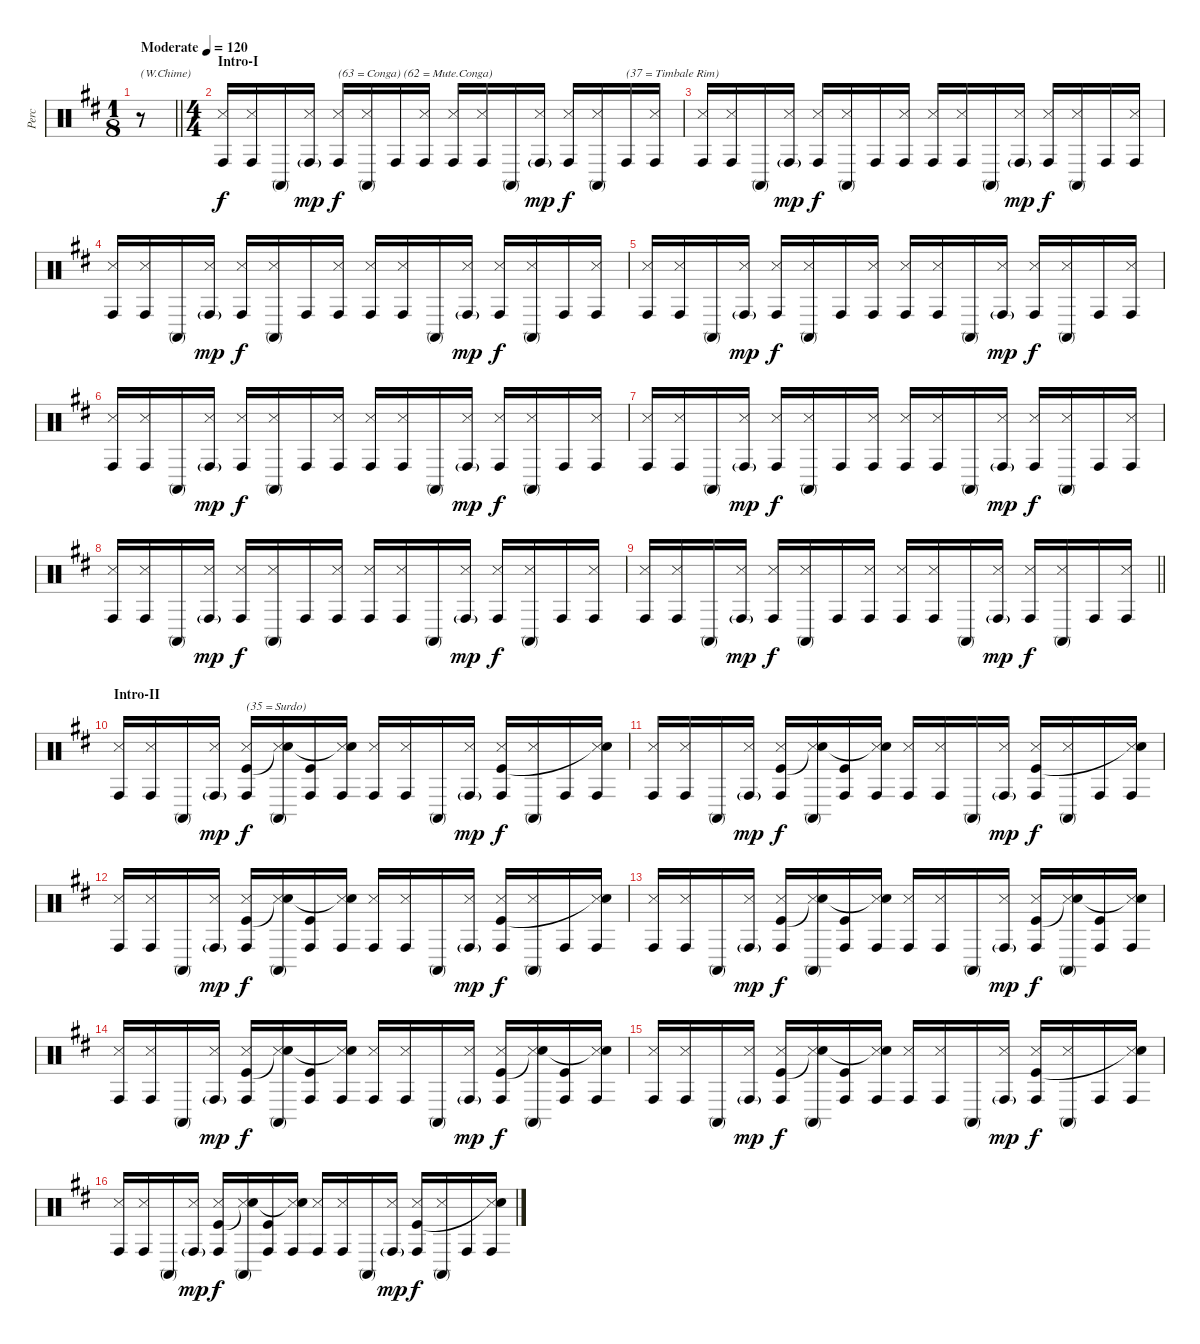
\track ("Perc" "Perc") {instrument percussion}
\staff {score}
\articulation defaults
\ts (1 8)
\tempo (120 "Moderate")
\clef neutral
\barLineRight lightlight
\ks d
r.8{txt "(W.Chime)" dy f} |
\ts (4 4)
\section ("" "Intro-I")
("Conga high (hit)" "Snare (side stick) 3").16 ("Conga high (hit)" "Snare (side stick) 3").16 "Conga high (mute)".16 ("Conga high (hit)"{g} "Snare (side stick) 3").16{dy mp} ("Conga high (hit)" "Snare (side stick) 3").16{txt "(63 = Conga) (62 = Mute.Conga)" dy f} ("Conga high (mute)" "Snare (side stick) 3").16 "Conga high (hit)".16 ("Conga high (hit)" "Snare (side stick) 3").16 ("Conga high (hit)" "Snare (side stick) 3").16 ("Conga high (hit)" "Snare (side stick) 3").16 "Conga high (mute)".16 ("Conga high (hit)"{g} "Snare (side stick) 3").16{dy mp} ("Conga high (hit)" "Snare (side stick) 3").16{dy f} ("Conga high (mute)" "Snare (side stick) 3").16 "Conga high (hit)".16{txt "(37 = Timbale Rim)"} ("Conga high (hit)" "Snare (side stick) 3").16 |
("Conga high (hit)" "Snare (side stick) 3").16 ("Conga high (hit)" "Snare (side stick) 3").16 "Conga high (mute)".16 ("Conga high (hit)"{g} "Snare (side stick) 3").16{dy mp} ("Conga high (hit)" "Snare (side stick) 3").16{dy f} ("Conga high (mute)" "Snare (side stick) 3").16 "Conga high (hit)".16 ("Conga high (hit)" "Snare (side stick) 3").16 ("Conga high (hit)" "Snare (side stick) 3").16 ("Conga high (hit)" "Snare (side stick) 3").16 "Conga high (mute)".16 ("Conga high (hit)"{g} "Snare (side stick) 3").16{dy mp} ("Conga high (hit)" "Snare (side stick) 3").16{dy f} ("Conga high (mute)" "Snare (side stick) 3").16 "Conga high (hit)".16 ("Conga high (hit)" "Snare (side stick) 3").16 |
("Conga high (hit)" "Snare (side stick) 3").16 ("Conga high (hit)" "Snare (side stick) 3").16 "Conga high (mute)".16 ("Conga high (hit)"{g} "Snare (side stick) 3").16{dy mp} ("Conga high (hit)" "Snare (side stick) 3").16{dy f} ("Conga high (mute)" "Snare (side stick) 3").16 "Conga high (hit)".16 ("Conga high (hit)" "Snare (side stick) 3").16 ("Conga high (hit)" "Snare (side stick) 3").16 ("Conga high (hit)" "Snare (side stick) 3").16 "Conga high (mute)".16 ("Conga high (hit)"{g} "Snare (side stick) 3").16{dy mp} ("Conga high (hit)" "Snare (side stick) 3").16{dy f} ("Conga high (mute)" "Snare (side stick) 3").16 "Conga high (hit)".16 ("Conga high (hit)" "Snare (side stick) 3").16 |
("Conga high (hit)" "Snare (side stick) 3").16 ("Conga high (hit)" "Snare (side stick) 3").16 "Conga high (mute)".16 ("Conga high (hit)"{g} "Snare (side stick) 3").16{dy mp} ("Conga high (hit)" "Snare (side stick) 3").16{dy f} ("Conga high (mute)" "Snare (side stick) 3").16 "Conga high (hit)".16 ("Conga high (hit)" "Snare (side stick) 3").16 ("Conga high (hit)" "Snare (side stick) 3").16 ("Conga high (hit)" "Snare (side stick) 3").16 "Conga high (mute)".16 ("Conga high (hit)"{g} "Snare (side stick) 3").16{dy mp} ("Conga high (hit)" "Snare (side stick) 3").16{dy f} ("Conga high (mute)" "Snare (side stick) 3").16 "Conga high (hit)".16 ("Conga high (hit)" "Snare (side stick) 3").16 |
("Conga high (hit)" "Snare (side stick) 3").16 ("Conga high (hit)" "Snare (side stick) 3").16 "Conga high (mute)".16 ("Conga high (hit)"{g} "Snare (side stick) 3").16{dy mp} ("Conga high (hit)" "Snare (side stick) 3").16{dy f} ("Conga high (mute)" "Snare (side stick) 3").16 "Conga high (hit)".16 ("Conga high (hit)" "Snare (side stick) 3").16 ("Conga high (hit)" "Snare (side stick) 3").16 ("Conga high (hit)" "Snare (side stick) 3").16 "Conga high (mute)".16 ("Conga high (hit)"{g} "Snare (side stick) 3").16{dy mp} ("Conga high (hit)" "Snare (side stick) 3").16{dy f} ("Conga high (mute)" "Snare (side stick) 3").16 "Conga high (hit)".16 ("Conga high (hit)" "Snare (side stick) 3").16 |
("Conga high (hit)" "Snare (side stick) 3").16 ("Conga high (hit)" "Snare (side stick) 3").16 "Conga high (mute)".16 ("Conga high (hit)"{g} "Snare (side stick) 3").16{dy mp} ("Conga high (hit)" "Snare (side stick) 3").16{dy f} ("Conga high (mute)" "Snare (side stick) 3").16 "Conga high (hit)".16 ("Conga high (hit)" "Snare (side stick) 3").16 ("Conga high (hit)" "Snare (side stick) 3").16 ("Conga high (hit)" "Snare (side stick) 3").16 "Conga high (mute)".16 ("Conga high (hit)"{g} "Snare (side stick) 3").16{dy mp} ("Conga high (hit)" "Snare (side stick) 3").16{dy f} ("Conga high (mute)" "Snare (side stick) 3").16 "Conga high (hit)".16 ("Conga high (hit)" "Snare (side stick) 3").16 |
("Conga high (hit)" "Snare (side stick) 3").16 ("Conga high (hit)" "Snare (side stick) 3").16 "Conga high (mute)".16 ("Conga high (hit)"{g} "Snare (side stick) 3").16{dy mp} ("Conga high (hit)" "Snare (side stick) 3").16{dy f} ("Conga high (mute)" "Snare (side stick) 3").16 "Conga high (hit)".16 ("Conga high (hit)" "Snare (side stick) 3").16 ("Conga high (hit)" "Snare (side stick) 3").16 ("Conga high (hit)" "Snare (side stick) 3").16 "Conga high (mute)".16 ("Conga high (hit)"{g} "Snare (side stick) 3").16{dy mp} ("Conga high (hit)" "Snare (side stick) 3").16{dy f} ("Conga high (mute)" "Snare (side stick) 3").16 "Conga high (hit)".16 ("Conga high (hit)" "Snare (side stick) 3").16 |
\barLineRight lightlight
("Conga high (hit)" "Snare (side stick) 3").16 ("Conga high (hit)" "Snare (side stick) 3").16 "Conga high (mute)".16 ("Conga high (hit)"{g} "Snare (side stick) 3").16{dy mp} ("Conga high (hit)" "Snare (side stick) 3").16{dy f} ("Conga high (mute)" "Snare (side stick) 3").16 "Conga high (hit)".16 ("Conga high (hit)" "Snare (side stick) 3").16 ("Conga high (hit)" "Snare (side stick) 3").16 ("Conga high (hit)" "Snare (side stick) 3").16 "Conga high (mute)".16 ("Conga high (hit)"{g} "Snare (side stick) 3").16{dy mp} ("Conga high (hit)" "Snare (side stick) 3").16{dy f} ("Conga high (mute)" "Snare (side stick) 3").16 "Conga high (hit)".16 ("Conga high (hit)" "Snare (side stick) 3").16 |
\section ("" "Intro-II")
("Conga high (hit)" "Snare (side stick) 3").16 ("Conga high (hit)" "Snare (side stick) 3").16 "Conga high (mute)".16 ("Conga high (hit)"{g} "Snare (side stick) 3").16{dy mp} ("Conga high (hit)" "Snare (side stick) 3" "Kick (hit)").16{txt "(35 = Surdo)" dy f} ("Conga high (mute)" "Snare (side stick) 3" "Snare (hit)"{t}).16 ("Conga high (hit)" "Kick (hit)").16 ("Conga high (hit)" "Snare (side stick) 3" "Snare (hit)"{t}).16 ("Conga high (hit)" "Snare (side stick) 3").16 ("Conga high (hit)" "Snare (side stick) 3").16 "Conga high (mute)".16 ("Conga high (hit)"{g} "Snare (side stick) 3").16{dy mp} ("Conga high (hit)" "Snare (side stick) 3" "Kick (hit)").16{dy f} ("Conga high (mute)" "Snare (side stick) 3").16 "Conga high (hit)".16 ("Conga high (hit)" "Snare (side stick) 3" "Snare (hit)"{t}).16 |
("Conga high (hit)" "Snare (side stick) 3").16 ("Conga high (hit)" "Snare (side stick) 3").16 "Conga high (mute)".16 ("Conga high (hit)"{g} "Snare (side stick) 3").16{dy mp} ("Conga high (hit)" "Snare (side stick) 3" "Kick (hit)").16{dy f} ("Conga high (mute)" "Snare (side stick) 3" "Snare (hit)"{t}).16 ("Conga high (hit)" "Kick (hit)").16 ("Conga high (hit)" "Snare (side stick) 3" "Snare (hit)"{t}).16 ("Conga high (hit)" "Snare (side stick) 3").16 ("Conga high (hit)" "Snare (side stick) 3").16 "Conga high (mute)".16 ("Conga high (hit)"{g} "Snare (side stick) 3").16{dy mp} ("Conga high (hit)" "Snare (side stick) 3" "Kick (hit)").16{dy f} ("Conga high (mute)" "Snare (side stick) 3").16 "Conga high (hit)".16 ("Conga high (hit)" "Snare (side stick) 3" "Snare (hit)"{t}).16 |
("Conga high (hit)" "Snare (side stick) 3").16 ("Conga high (hit)" "Snare (side stick) 3").16 "Conga high (mute)".16 ("Conga high (hit)"{g} "Snare (side stick) 3").16{dy mp} ("Conga high (hit)" "Snare (side stick) 3" "Kick (hit)").16{dy f} ("Conga high (mute)" "Snare (side stick) 3" "Snare (hit)"{t}).16 ("Conga high (hit)" "Kick (hit)").16 ("Conga high (hit)" "Snare (side stick) 3" "Snare (hit)"{t}).16 ("Conga high (hit)" "Snare (side stick) 3").16 ("Conga high (hit)" "Snare (side stick) 3").16 "Conga high (mute)".16 ("Conga high (hit)"{g} "Snare (side stick) 3").16{dy mp} ("Conga high (hit)" "Snare (side stick) 3" "Kick (hit)").16{dy f} ("Conga high (mute)" "Snare (side stick) 3").16 "Conga high (hit)".16 ("Conga high (hit)" "Snare (side stick) 3" "Snare (hit)"{t}).16 |
("Conga high (hit)" "Snare (side stick) 3").16 ("Conga high (hit)" "Snare (side stick) 3").16 "Conga high (mute)".16 ("Conga high (hit)"{g} "Snare (side stick) 3").16{dy mp} ("Conga high (hit)" "Snare (side stick) 3" "Kick (hit)").16{dy f} ("Conga high (mute)" "Snare (side stick) 3" "Snare (hit)"{t}).16 ("Conga high (hit)" "Kick (hit)").16 ("Conga high (hit)" "Snare (side stick) 3" "Snare (hit)"{t}).16 ("Conga high (hit)" "Snare (side stick) 3").16 ("Conga high (hit)" "Snare (side stick) 3").16 "Conga high (mute)".16 ("Conga high (hit)"{g} "Snare (side stick) 3").16{dy mp} ("Conga high (hit)" "Snare (side stick) 3" "Kick (hit)").16{dy f} ("Conga high (mute)" "Snare (side stick) 3" "Snare (hit)"{t}).16 ("Conga high (hit)" "Kick (hit)").16 ("Conga high (hit)" "Snare (side stick) 3" "Snare (hit)"{t}).16 |
("Conga high (hit)" "Snare (side stick) 3").16 ("Conga high (hit)" "Snare (side stick) 3").16 "Conga high (mute)".16 ("Conga high (hit)"{g} "Snare (side stick) 3").16{dy mp} ("Conga high (hit)" "Snare (side stick) 3" "Kick (hit)").16{dy f} ("Conga high (mute)" "Snare (side stick) 3" "Snare (hit)"{t}).16 ("Conga high (hit)" "Kick (hit)").16 ("Conga high (hit)" "Snare (side stick) 3" "Snare (hit)"{t}).16 ("Conga high (hit)" "Snare (side stick) 3").16 ("Conga high (hit)" "Snare (side stick) 3").16 "Conga high (mute)".16 ("Conga high (hit)"{g} "Snare (side stick) 3").16{dy mp} ("Conga high (hit)" "Snare (side stick) 3" "Kick (hit)").16{dy f} ("Conga high (mute)" "Snare (side stick) 3" "Snare (hit)"{t}).16 ("Conga high (hit)" "Kick (hit)").16 ("Conga high (hit)" "Snare (side stick) 3" "Snare (hit)"{t}).16 |
("Conga high (hit)" "Snare (side stick) 3").16 ("Conga high (hit)" "Snare (side stick) 3").16 "Conga high (mute)".16 ("Conga high (hit)"{g} "Snare (side stick) 3").16{dy mp} ("Conga high (hit)" "Snare (side stick) 3" "Kick (hit)").16{dy f} ("Conga high (mute)" "Snare (side stick) 3" "Snare (hit)"{t}).16 ("Conga high (hit)" "Kick (hit)").16 ("Conga high (hit)" "Snare (side stick) 3" "Snare (hit)"{t}).16 ("Conga high (hit)" "Snare (side stick) 3").16 ("Conga high (hit)" "Snare (side stick) 3").16 "Conga high (mute)".16 ("Conga high (hit)"{g} "Snare (side stick) 3").16{dy mp} ("Conga high (hit)" "Snare (side stick) 3" "Kick (hit)").16{dy f} ("Conga high (mute)" "Snare (side stick) 3").16 "Conga high (hit)".16 ("Conga high (hit)" "Snare (side stick) 3" "Snare (hit)"{t}).16 |
("Conga high (hit)" "Snare (side stick) 3").16 ("Conga high (hit)" "Snare (side stick) 3").16 "Conga high (mute)".16 ("Conga high (hit)"{g} "Snare (side stick) 3").16{dy mp} ("Conga high (hit)" "Snare (side stick) 3" "Kick (hit)").16{dy f} ("Conga high (mute)" "Snare (side stick) 3" "Snare (hit)"{t}).16 ("Conga high (hit)" "Kick (hit)").16 ("Conga high (hit)" "Snare (side stick) 3" "Snare (hit)"{t}).16 ("Conga high (hit)" "Snare (side stick) 3").16 ("Conga high (hit)" "Snare (side stick) 3").16 "Conga high (mute)".16 ("Conga high (hit)"{g} "Snare (side stick) 3").16{dy mp} ("Conga high (hit)" "Snare (side stick) 3" "Kick (hit)").16{dy f} ("Conga high (mute)" "Snare (side stick) 3").16 "Conga high (hit)".16 ("Conga high (hit)" "Snare (side stick) 3" "Snare (hit)"{t}).16
